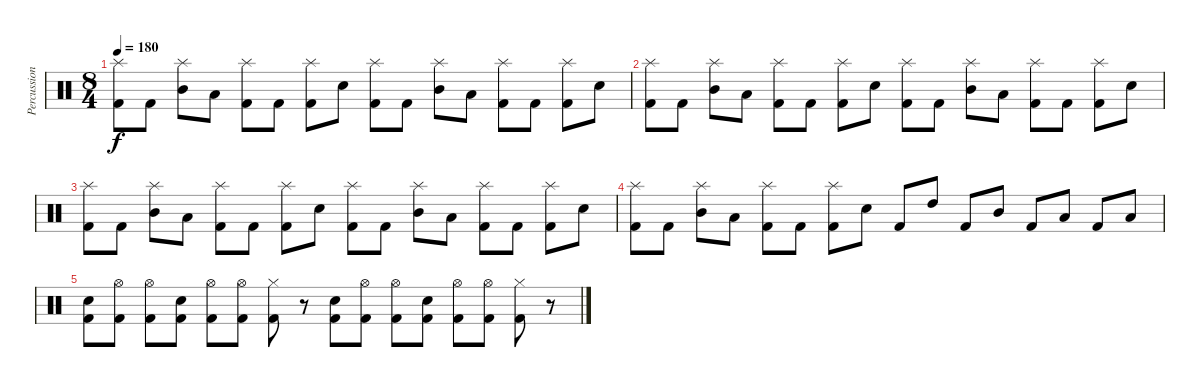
\track ("Percussion" "Percussion") {instrument percussion}
\staff {score}
\articulation defaults
\ts (8 4)
\tempo 180
\clef neutral
\ks c
("Kick (hit) 2" "Splash (hit)").8{dy f} "Kick (hit) 2".8 ("Mid Tom (hit)" "Splash (hit)").8 "Low Tom (hit)".8 ("Kick (hit) 2" "Splash (hit)").8 "Kick (hit) 2".8 ("Kick (hit) 2" "Splash (hit)").8 "Electric Snare (hit)".8 ("Kick (hit) 2" "Splash (hit)").8 "Kick (hit) 2".8 ("Mid Tom (hit)" "Splash (hit)").8 "Low Tom (hit)".8 ("Kick (hit) 2" "Splash (hit)").8 "Kick (hit) 2".8 ("Kick (hit) 2" "Splash (hit)").8 "Electric Snare (hit)".8 |
("Kick (hit) 2" "Splash (hit)").8 "Kick (hit) 2".8 ("Mid Tom (hit)" "Splash (hit)").8 "Low Tom (hit)".8 ("Kick (hit) 2" "Splash (hit)").8 "Kick (hit) 2".8 ("Kick (hit) 2" "Splash (hit)").8 "Electric Snare (hit)".8 ("Kick (hit) 2" "Splash (hit)").8 "Kick (hit) 2".8 ("Mid Tom (hit)" "Splash (hit)").8 "Low Tom (hit)".8 ("Kick (hit) 2" "Splash (hit)").8 "Kick (hit) 2".8 ("Kick (hit) 2" "Splash (hit)").8 "Electric Snare (hit)".8 |
("Kick (hit) 2" "Splash (hit)").8 "Kick (hit) 2".8 ("Mid Tom (hit)" "Splash (hit)").8 "Low Tom (hit)".8 ("Kick (hit) 2" "Splash (hit)").8 "Kick (hit) 2".8 ("Kick (hit) 2" "Splash (hit)").8 "Electric Snare (hit)".8 ("Kick (hit) 2" "Splash (hit)").8 "Kick (hit) 2".8 ("Mid Tom (hit)" "Splash (hit)").8 "Low Tom (hit)".8 ("Kick (hit) 2" "Splash (hit)").8 "Kick (hit) 2".8 ("Kick (hit) 2" "Splash (hit)").8 "Electric Snare (hit)".8 |
("Kick (hit) 2" "Splash (hit)").8 "Kick (hit) 2".8 ("Mid Tom (hit)" "Splash (hit)").8 "Low Tom (hit)".8 ("Kick (hit) 2" "Splash (hit)").8 "Kick (hit) 2".8 ("Kick (hit) 2" "Splash (hit)").8 "Electric Snare (hit)".8 "Kick (hit) 2".8 "High Tom (hit)".8 "Kick (hit) 2".8 "Mid Tom (hit)".8 "Kick (hit) 2".8 "Low Tom (hit)".8 "Kick (hit) 2".8 "Low Floor Tom (hit)".8 |
("Kick (hit) 2" "Electric Snare (hit)").8 ("Kick (hit) 2" "Hi-Hat (open)").8 ("Kick (hit) 2" "Hi-Hat (open)").8 ("Kick (hit) 2" "Electric Snare (hit)").8 ("Kick (hit) 2" "Hi-Hat (open)").8 ("Kick (hit) 2" "Hi-Hat (open)").8 ("Kick (hit) 2" "Hi-Hat (closed)").8 r.8 ("Kick (hit) 2" "Electric Snare (hit)").8 ("Kick (hit) 2" "Hi-Hat (open)").8 ("Kick (hit) 2" "Hi-Hat (open)").8 ("Kick (hit) 2" "Electric Snare (hit)").8 ("Kick (hit) 2" "Hi-Hat (open)").8 ("Kick (hit) 2" "Hi-Hat (open)").8 ("Kick (hit) 2" "Hi-Hat (closed)").8 r.8
